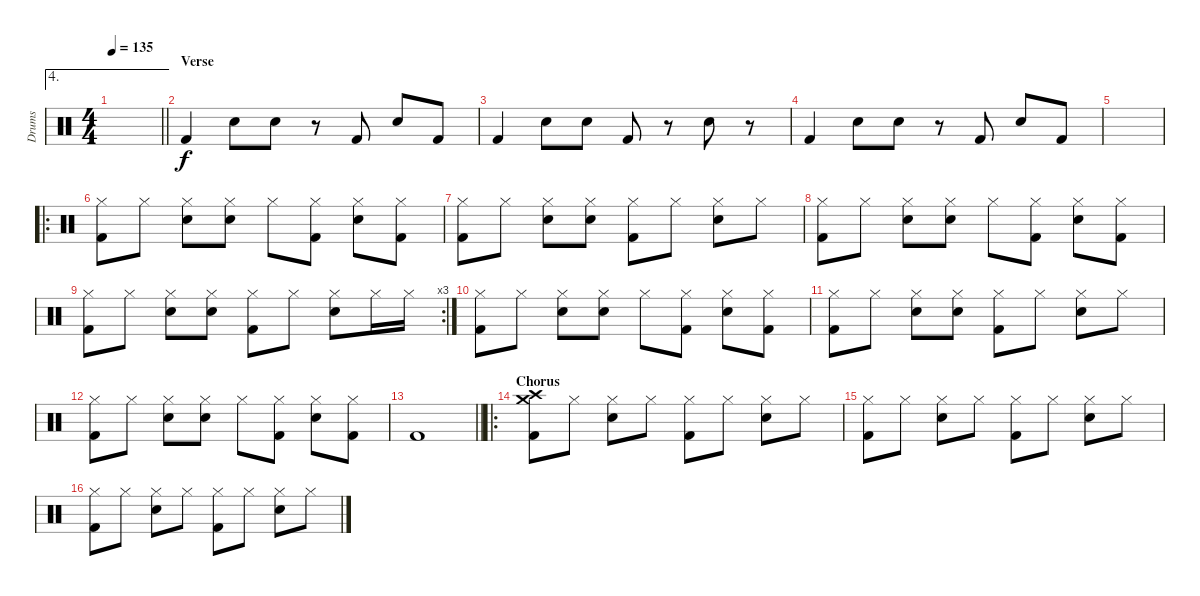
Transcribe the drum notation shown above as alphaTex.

\track ("Drums" "Drums") {instrument percussion}
\staff {score}
\articulation defaults
\ae 4
\ts (4 4)
\tempo 135
\clef neutral
\barLineRight lightlight
\ks c
|
\section ("" "Verse")
"Kick (hit) 2".4 "Hand Clap (hit)".8 "Hand Clap (hit)".8 r.8 "Kick (hit) 2".8 "Hand Clap (hit)".8 "Kick (hit) 2".8 |
"Kick (hit) 2".4 "Hand Clap (hit)".8 "Hand Clap (hit)".8 "Kick (hit) 2".8 r.8 "Hand Clap (hit)".8 r.8 |
"Kick (hit) 2".4 "Hand Clap (hit)".8 "Hand Clap (hit)".8 r.8 "Kick (hit) 2".8 "Hand Clap (hit)".8 "Kick (hit) 2".8 |
|
\ro
("Hi-Hat (closed)" "Kick (hit) 2").8 "Hi-Hat (closed)".8 ("Hi-Hat (closed)" "Hand Clap (hit)").8 ("Hi-Hat (closed)" "Hand Clap (hit)").8 "Hi-Hat (closed)".8 ("Hi-Hat (closed)" "Kick (hit) 2").8 ("Hi-Hat (closed)" "Hand Clap (hit)").8 ("Hi-Hat (closed)" "Kick (hit) 2").8 |
("Hi-Hat (closed)" "Kick (hit) 2").8 "Hi-Hat (closed)".8 ("Hi-Hat (closed)" "Hand Clap (hit)").8 ("Hi-Hat (closed)" "Hand Clap (hit)").8 ("Hi-Hat (closed)" "Kick (hit) 2").8 "Hi-Hat (closed)".8 ("Hi-Hat (closed)" "Hand Clap (hit)").8 "Hi-Hat (closed)".8 |
("Hi-Hat (closed)" "Kick (hit) 2").8 "Hi-Hat (closed)".8 ("Hi-Hat (closed)" "Hand Clap (hit)").8 ("Hi-Hat (closed)" "Hand Clap (hit)").8 "Hi-Hat (closed)".8 ("Hi-Hat (closed)" "Kick (hit) 2").8 ("Hi-Hat (closed)" "Hand Clap (hit)").8 ("Hi-Hat (closed)" "Kick (hit) 2").8 |
\rc 3
("Hi-Hat (closed)" "Kick (hit) 2").8 "Hi-Hat (closed)".8 ("Hi-Hat (closed)" "Hand Clap (hit)").8 ("Hi-Hat (closed)" "Hand Clap (hit)").8 ("Hi-Hat (closed)" "Kick (hit) 2").8 "Hi-Hat (closed)".8 ("Hi-Hat (closed)" "Hand Clap (hit)").8 "Hi-Hat (closed)".16 "Hi-Hat (closed)".16 |
("Hi-Hat (closed)" "Kick (hit) 2").8 "Hi-Hat (closed)".8 ("Hi-Hat (closed)" "Hand Clap (hit)").8 ("Hi-Hat (closed)" "Hand Clap (hit)").8 "Hi-Hat (closed)".8 ("Hi-Hat (closed)" "Kick (hit) 2").8 ("Hi-Hat (closed)" "Hand Clap (hit)").8 ("Hi-Hat (closed)" "Kick (hit) 2").8 |
("Hi-Hat (closed)" "Kick (hit) 2").8 "Hi-Hat (closed)".8 ("Hi-Hat (closed)" "Hand Clap (hit)").8 ("Hi-Hat (closed)" "Hand Clap (hit)").8 ("Hi-Hat (closed)" "Kick (hit) 2").8 "Hi-Hat (closed)".8 ("Hi-Hat (closed)" "Hand Clap (hit)").8 "Hi-Hat (closed)".8 |
("Hi-Hat (closed)" "Kick (hit) 2").8 "Hi-Hat (closed)".8 ("Hi-Hat (closed)" "Hand Clap (hit)").8 ("Hi-Hat (closed)" "Hand Clap (hit)").8 "Hi-Hat (closed)".8 ("Hi-Hat (closed)" "Kick (hit) 2").8 ("Hi-Hat (closed)" "Hand Clap (hit)").8 ("Hi-Hat (closed)" "Kick (hit) 2").8 |
\barLineRight lightlight "Kick (hit) 2".1
|
\ro
\section ("" "Chorus")
("Crash high (hit)" "Crash medium (hit)" "Kick (hit) 2").8 "Hi-Hat (closed)".8 ("Hi-Hat (closed)" "Electric Snare (hit)").8 "Hi-Hat (closed)".8 ("Hi-Hat (closed)" "Kick (hit) 2").8 "Hi-Hat (closed)".8 ("Hi-Hat (closed)" "Electric Snare (hit)").8 "Hi-Hat (closed)".8 |
("Hi-Hat (closed)" "Kick (hit) 2").8 "Hi-Hat (closed)".8 ("Hi-Hat (closed)" "Electric Snare (hit)").8 "Hi-Hat (closed)".8 ("Hi-Hat (closed)" "Kick (hit) 2").8 "Hi-Hat (closed)".8 ("Hi-Hat (closed)" "Electric Snare (hit)").8 "Hi-Hat (closed)".8 |
("Hi-Hat (closed)" "Kick (hit) 2").8 "Hi-Hat (closed)".8 ("Hi-Hat (closed)" "Electric Snare (hit)").8 "Hi-Hat (closed)".8 ("Hi-Hat (closed)" "Kick (hit) 2").8 "Hi-Hat (closed)".8 ("Hi-Hat (closed)" "Electric Snare (hit)").8 "Hi-Hat (closed)".8
